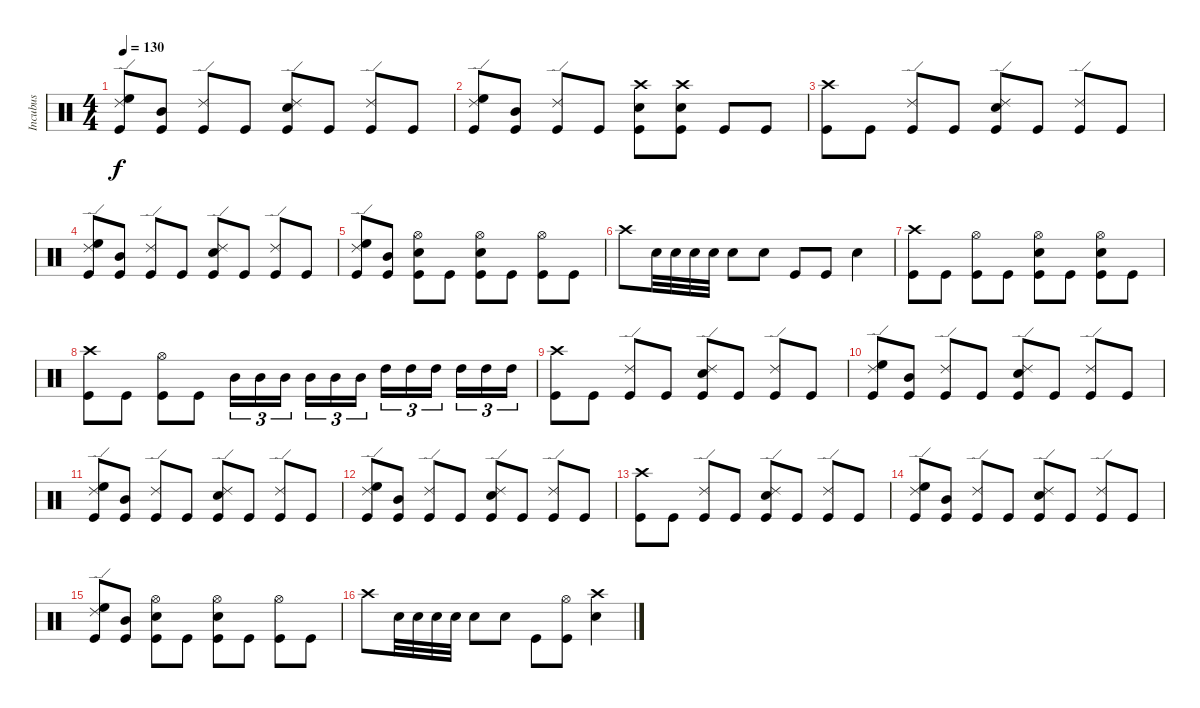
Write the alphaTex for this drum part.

\track ("Incubus" "Incubus") {instrument percussion}
\staff {score}
\articulation defaults
\ts (4 4)
\tempo 130
\clef neutral
\ks c
("High Floor Tom (hit)" "Ride (edge) 2" "Kick (hit)").8{dy f} ("Mid Tom (hit)" "Kick (hit)").8 ("Ride (edge) 2" "Kick (hit)").8 "Kick (hit)".8 ("Ride (edge) 2" "Electric Snare (hit)" "Kick (hit)").8 "Kick (hit)".8 ("Ride (edge) 2" "Kick (hit)").8 "Kick (hit)".8 |
("High Floor Tom (hit)" "Ride (edge) 2" "Kick (hit)").8 ("Mid Tom (hit)" "Kick (hit)").8 ("Ride (edge) 2" "Kick (hit)").8 "Kick (hit)".8 ("Crash high (hit)" "Electric Snare (hit)" "Kick (hit)").8 ("Crash high (hit)" "Electric Snare (hit)" "Kick (hit)").8 "Kick (hit)".8 "Kick (hit)".8 |
("Crash high (hit)" "Kick (hit)").8 "Kick (hit)".8 ("Ride (edge) 2" "Kick (hit)").8 "Kick (hit)".8 ("Ride (edge) 2" "Electric Snare (hit)" "Kick (hit)").8 "Kick (hit)".8 ("Ride (edge) 2" "Kick (hit)").8 "Kick (hit)".8 |
("High Floor Tom (hit)" "Ride (edge) 2" "Kick (hit)").8 ("Mid Tom (hit)" "Kick (hit)").8 ("Ride (edge) 2" "Kick (hit)").8 "Kick (hit)".8 ("Ride (edge) 2" "Electric Snare (hit)" "Kick (hit)").8 "Kick (hit)".8 ("Ride (edge) 2" "Kick (hit)").8 "Kick (hit)".8 |
("High Floor Tom (hit)" "Ride (edge) 2" "Kick (hit)").8 ("Mid Tom (hit)" "Kick (hit)").8 ("Hi-Hat (open)" "Electric Snare (hit)" "Kick (hit)").8 "Kick (hit)".8 ("Hi-Hat (open)" "Electric Snare (hit)" "Kick (hit)").8 "Kick (hit)".8 ("Hi-Hat (open)" "Kick (hit)").8 "Kick (hit)".8 |
"Crash high (hit)".8 "Electric Snare (hit)".32 "Electric Snare (hit)".32 "Electric Snare (hit)".32 "Electric Snare (hit)".32 "Electric Snare (hit)".8 "Electric Snare (hit)".8 "Kick (hit)".8 "Kick (hit)".8 "Electric Snare (hit)".4 |
("Crash high (hit)" "Kick (hit)").8 "Kick (hit)".8 ("Hi-Hat (open)" "Kick (hit)").8 "Kick (hit)".8 ("Electric Snare (hit)" "Hi-Hat (open)" "Kick (hit)").8 "Kick (hit)".8 ("Electric Snare (hit)" "Hi-Hat (open)" "Kick (hit)").8 "Kick (hit)".8 |
("Crash high (hit)" "Kick (hit)").8 "Kick (hit)".8 ("Hi-Hat (open)" "Kick (hit)").8 "Kick (hit)".8 "Mid Tom (hit)".16{tu (3 2)} "Mid Tom (hit)".16{tu (3 2)} "Mid Tom (hit)".16{tu (3 2) beam splitsecondary} "Mid Tom (hit)".16{tu (3 2)} "Mid Tom (hit)".16{tu (3 2)} "Mid Tom (hit)".16{tu (3 2)} "High Tom (hit)".16{tu (3 2)} "High Tom (hit)".16{tu (3 2)} "High Tom (hit)".16{tu (3 2) beam splitsecondary} "High Tom (hit)".16{tu (3 2)} "High Tom (hit)".16{tu (3 2)} "High Tom (hit)".16{tu (3 2)} |
("Crash high (hit)" "Kick (hit)").8 "Kick (hit)".8 ("Ride (edge) 2" "Kick (hit)").8 "Kick (hit)".8 ("Ride (edge) 2" "Electric Snare (hit)" "Kick (hit)").8 "Kick (hit)".8 ("Ride (edge) 2" "Kick (hit)").8 "Kick (hit)".8 |
("High Floor Tom (hit)" "Ride (edge) 2" "Kick (hit)").8 ("Mid Tom (hit)" "Kick (hit)").8 ("Ride (edge) 2" "Kick (hit)").8 "Kick (hit)".8 ("Ride (edge) 2" "Electric Snare (hit)" "Kick (hit)").8 "Kick (hit)".8 ("Ride (edge) 2" "Kick (hit)").8 "Kick (hit)".8 |
("High Floor Tom (hit)" "Ride (edge) 2" "Kick (hit)").8 ("Mid Tom (hit)" "Kick (hit)").8 ("Ride (edge) 2" "Kick (hit)").8 "Kick (hit)".8 ("Ride (edge) 2" "Electric Snare (hit)" "Kick (hit)").8 "Kick (hit)".8 ("Ride (edge) 2" "Kick (hit)").8 "Kick (hit)".8 |
("High Floor Tom (hit)" "Ride (edge) 2" "Kick (hit)").8 ("Mid Tom (hit)" "Kick (hit)").8 ("Ride (edge) 2" "Kick (hit)").8 "Kick (hit)".8 ("Ride (edge) 2" "Electric Snare (hit)" "Kick (hit)").8 "Kick (hit)".8 ("Ride (edge) 2" "Kick (hit)").8 "Kick (hit)".8 |
("Crash high (hit)" "Kick (hit)").8 "Kick (hit)".8 ("Ride (edge) 2" "Kick (hit)").8 "Kick (hit)".8 ("Ride (edge) 2" "Electric Snare (hit)" "Kick (hit)").8 "Kick (hit)".8 ("Ride (edge) 2" "Kick (hit)").8 "Kick (hit)".8 |
("High Floor Tom (hit)" "Ride (edge) 2" "Kick (hit)").8 ("Mid Tom (hit)" "Kick (hit)").8 ("Ride (edge) 2" "Kick (hit)").8 "Kick (hit)".8 ("Ride (edge) 2" "Electric Snare (hit)" "Kick (hit)").8 "Kick (hit)".8 ("Ride (edge) 2" "Kick (hit)").8 "Kick (hit)".8 |
("High Floor Tom (hit)" "Ride (edge) 2" "Kick (hit)").8 ("Mid Tom (hit)" "Kick (hit)").8 ("Hi-Hat (open)" "Electric Snare (hit)" "Kick (hit)").8 "Kick (hit)".8 ("Hi-Hat (open)" "Electric Snare (hit)" "Kick (hit)").8 "Kick (hit)".8 ("Hi-Hat (open)" "Kick (hit)").8 "Kick (hit)".8 |
"Crash high (hit)".8 "Electric Snare (hit)".32 "Electric Snare (hit)".32 "Electric Snare (hit)".32 "Electric Snare (hit)".32 "Electric Snare (hit)".8 "Electric Snare (hit)".8 "Kick (hit)".8 ("Hi-Hat (open)" "Kick (hit)").8 ("Crash high (hit)" "Electric Snare (hit)").4
